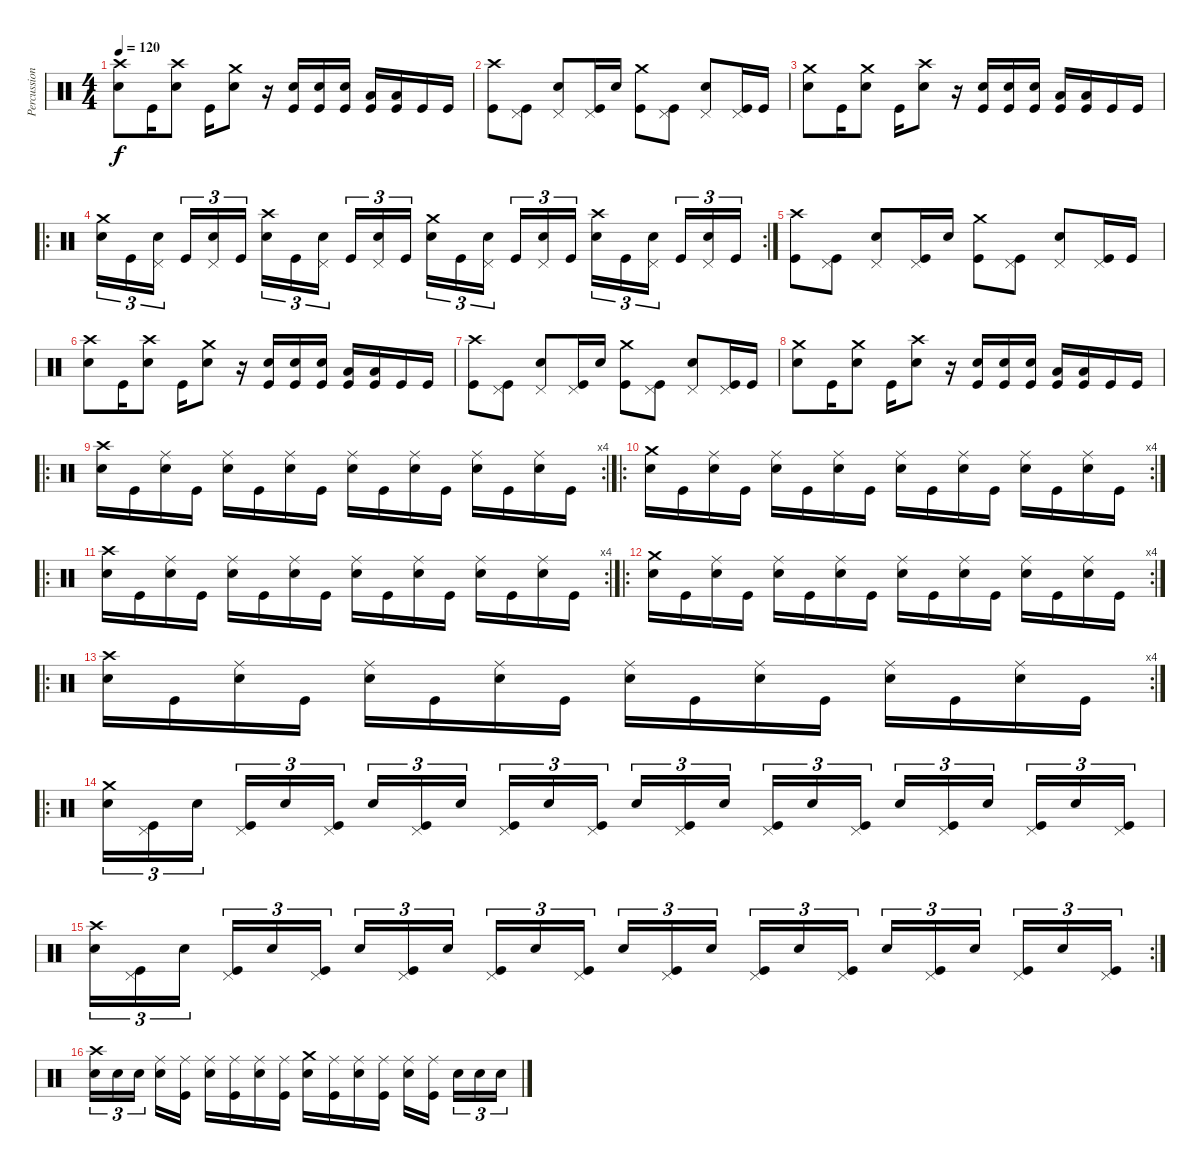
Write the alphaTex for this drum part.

\track ("Percussioni" "Percussion") {instrument percussion}
\staff {score}
\articulation defaults
\ts (4 4)
\tempo 120
\clef neutral
\ks c
("Crash high (hit)" "Electric Snare (hit)").8{dy f} "Kick (hit)".16 ("Crash high (hit)" "Electric Snare (hit)").8 "Kick (hit)".16 ("Crash medium (hit)" "Electric Snare (hit)").8 r.16 ("Electric Snare (hit)" "Kick (hit)").16 ("Electric Snare (hit)" "Kick (hit)").16 ("Electric Snare (hit)" "Kick (hit)").16 ("Low Floor Tom (hit)" "Kick (hit)").16 ("Low Floor Tom (hit)" "Kick (hit)").16 "Kick (hit)".16 "Kick (hit)".16 |
("Crash high (hit)" "Kick (hit)").8 ("Pedal Hi-Hat (hit)" "Kick (hit)").8 ("Pedal Hi-Hat (hit)" "Electric Snare (hit)").8 ("Pedal Hi-Hat (hit)" "Kick (hit)").16 "Electric Snare (hit)".16 ("Crash medium (hit)" "Kick (hit)").8 ("Pedal Hi-Hat (hit)" "Kick (hit)").8 ("Pedal Hi-Hat (hit)" "Electric Snare (hit)").8 ("Pedal Hi-Hat (hit)" "Kick (hit)").16 "Kick (hit)".16 |
("Crash medium (hit)" "Electric Snare (hit)").8 "Kick (hit)".16 ("Crash medium (hit)" "Electric Snare (hit)").8 "Kick (hit)".16 ("Crash high (hit)" "Electric Snare (hit)").8 r.16 ("Electric Snare (hit)" "Kick (hit)").16 ("Electric Snare (hit)" "Kick (hit)").16 ("Electric Snare (hit)" "Kick (hit)").16 ("Low Floor Tom (hit)" "Kick (hit)").16 ("Low Floor Tom (hit)" "Kick (hit)").16 "Kick (hit)".16 "Kick (hit)".16 |
\ro
\rc 2
("Crash medium (hit)" "Electric Snare (hit)").16{tu (3 2)} "Kick (hit)".16{tu (3 2)} ("Pedal Hi-Hat (hit)" "Electric Snare (hit)").16{tu (3 2)} "Kick (hit)".16{tu (3 2)} ("Pedal Hi-Hat (hit)" "Electric Snare (hit)").16{tu (3 2)} "Kick (hit)".16{tu (3 2)} ("Crash high (hit)" "Electric Snare (hit)").16{tu (3 2)} "Kick (hit)".16{tu (3 2)} ("Pedal Hi-Hat (hit)" "Electric Snare (hit)").16{tu (3 2)} "Kick (hit)".16{tu (3 2)} ("Pedal Hi-Hat (hit)" "Electric Snare (hit)").16{tu (3 2)} "Kick (hit)".16{tu (3 2)} ("Crash medium (hit)" "Electric Snare (hit)").16{tu (3 2)} "Kick (hit)".16{tu (3 2)} ("Pedal Hi-Hat (hit)" "Electric Snare (hit)").16{tu (3 2)} "Kick (hit)".16{tu (3 2)} ("Pedal Hi-Hat (hit)" "Electric Snare (hit)").16{tu (3 2)} "Kick (hit)".16{tu (3 2)} ("Crash high (hit)" "Electric Snare (hit)").16{tu (3 2)} "Kick (hit)".16{tu (3 2)} ("Pedal Hi-Hat (hit)" "Electric Snare (hit)").16{tu (3 2)} "Kick (hit)".16{tu (3 2)} ("Pedal Hi-Hat (hit)" "Electric Snare (hit)").16{tu (3 2)} "Kick (hit)".16{tu (3 2)} |
("Crash high (hit)" "Kick (hit)").8 ("Pedal Hi-Hat (hit)" "Kick (hit)").8 ("Pedal Hi-Hat (hit)" "Electric Snare (hit)").8 ("Pedal Hi-Hat (hit)" "Kick (hit)").16 "Electric Snare (hit)".16 ("Crash medium (hit)" "Kick (hit)").8 ("Pedal Hi-Hat (hit)" "Kick (hit)").8 ("Pedal Hi-Hat (hit)" "Electric Snare (hit)").8 ("Pedal Hi-Hat (hit)" "Kick (hit)").16 "Kick (hit)".16 |
("Crash high (hit)" "Electric Snare (hit)").8 "Kick (hit)".16 ("Crash high (hit)" "Electric Snare (hit)").8 "Kick (hit)".16 ("Crash medium (hit)" "Electric Snare (hit)").8 r.16 ("Electric Snare (hit)" "Kick (hit)").16 ("Electric Snare (hit)" "Kick (hit)").16 ("Electric Snare (hit)" "Kick (hit)").16 ("Low Floor Tom (hit)" "Kick (hit)").16 ("Low Floor Tom (hit)" "Kick (hit)").16 "Kick (hit)".16 "Kick (hit)".16 |
("Crash high (hit)" "Kick (hit)").8 ("Pedal Hi-Hat (hit)" "Kick (hit)").8 ("Pedal Hi-Hat (hit)" "Electric Snare (hit)").8 ("Pedal Hi-Hat (hit)" "Kick (hit)").16 "Electric Snare (hit)".16 ("Crash medium (hit)" "Kick (hit)").8 ("Pedal Hi-Hat (hit)" "Kick (hit)").8 ("Pedal Hi-Hat (hit)" "Electric Snare (hit)").8 ("Pedal Hi-Hat (hit)" "Kick (hit)").16 "Kick (hit)".16 |
("Crash medium (hit)" "Electric Snare (hit)").8 "Kick (hit)".16 ("Crash medium (hit)" "Electric Snare (hit)").8 "Kick (hit)".16 ("Crash high (hit)" "Electric Snare (hit)").8 r.16 ("Electric Snare (hit)" "Kick (hit)").16 ("Electric Snare (hit)" "Kick (hit)").16 ("Electric Snare (hit)" "Kick (hit)").16 ("Low Floor Tom (hit)" "Kick (hit)").16 ("Low Floor Tom (hit)" "Kick (hit)").16 "Kick (hit)".16 "Kick (hit)".16 |
\ro
\rc 4
("Crash high (hit)" "Electric Snare (hit)").16 "Kick (hit)".16 ("Ride (middle)" "Electric Snare (hit)").16 "Kick (hit)".16 ("Ride (middle)" "Electric Snare (hit)").16 "Kick (hit)".16 ("Ride (middle)" "Electric Snare (hit)").16 "Kick (hit)".16 ("Ride (middle)" "Electric Snare (hit)").16 "Kick (hit)".16 ("Ride (middle)" "Electric Snare (hit)").16 "Kick (hit)".16 ("Ride (middle)" "Electric Snare (hit)").16 "Kick (hit)".16 ("Ride (middle)" "Electric Snare (hit)").16 "Kick (hit)".16 |
\ro
\rc 4
("Crash medium (hit)" "Electric Snare (hit)").16 "Kick (hit)".16 ("Ride (middle)" "Electric Snare (hit)").16 "Kick (hit)".16 ("Ride (middle)" "Electric Snare (hit)").16 "Kick (hit)".16 ("Ride (middle)" "Electric Snare (hit)").16 "Kick (hit)".16 ("Ride (middle)" "Electric Snare (hit)").16 "Kick (hit)".16 ("Ride (middle)" "Electric Snare (hit)").16 "Kick (hit)".16 ("Ride (middle)" "Electric Snare (hit)").16 "Kick (hit)".16 ("Ride (middle)" "Electric Snare (hit)").16 "Kick (hit)".16 |
\ro
\rc 4
("Crash high (hit)" "Electric Snare (hit)").16 "Kick (hit)".16 ("Ride (middle)" "Electric Snare (hit)").16 "Kick (hit)".16 ("Ride (middle)" "Electric Snare (hit)").16 "Kick (hit)".16 ("Ride (middle)" "Electric Snare (hit)").16 "Kick (hit)".16 ("Ride (middle)" "Electric Snare (hit)").16 "Kick (hit)".16 ("Ride (middle)" "Electric Snare (hit)").16 "Kick (hit)".16 ("Ride (middle)" "Electric Snare (hit)").16 "Kick (hit)".16 ("Ride (middle)" "Electric Snare (hit)").16 "Kick (hit)".16 |
\ro
\rc 4
("Crash medium (hit)" "Electric Snare (hit)").16 "Kick (hit)".16 ("Ride (middle)" "Electric Snare (hit)").16 "Kick (hit)".16 ("Ride (middle)" "Electric Snare (hit)").16 "Kick (hit)".16 ("Ride (middle)" "Electric Snare (hit)").16 "Kick (hit)".16 ("Ride (middle)" "Electric Snare (hit)").16 "Kick (hit)".16 ("Ride (middle)" "Electric Snare (hit)").16 "Kick (hit)".16 ("Ride (middle)" "Electric Snare (hit)").16 "Kick (hit)".16 ("Ride (middle)" "Electric Snare (hit)").16 "Kick (hit)".16 |
\ro
\rc 4
("Crash high (hit)" "Electric Snare (hit)").16 "Kick (hit)".16 ("Ride (middle)" "Electric Snare (hit)").16 "Kick (hit)".16 ("Ride (middle)" "Electric Snare (hit)").16 "Kick (hit)".16 ("Ride (middle)" "Electric Snare (hit)").16 "Kick (hit)".16 ("Ride (middle)" "Electric Snare (hit)").16 "Kick (hit)".16 ("Ride (middle)" "Electric Snare (hit)").16 "Kick (hit)".16 ("Ride (middle)" "Electric Snare (hit)").16 "Kick (hit)".16 ("Ride (middle)" "Electric Snare (hit)").16 "Kick (hit)".16 |
\ro
("Crash medium (hit)" "Electric Snare (hit)").16{tu (3 2)} ("Pedal Hi-Hat (hit)" "Kick (hit)").16{tu (3 2)} "Electric Snare (hit)".16{tu (3 2)} ("Pedal Hi-Hat (hit)" "Kick (hit)").16{tu (3 2)} "Electric Snare (hit)".16{tu (3 2)} ("Pedal Hi-Hat (hit)" "Kick (hit)").16{tu (3 2)} "Electric Snare (hit)".16{tu (3 2)} ("Pedal Hi-Hat (hit)" "Kick (hit)").16{tu (3 2)} "Electric Snare (hit)".16{tu (3 2)} ("Pedal Hi-Hat (hit)" "Kick (hit)").16{tu (3 2)} "Electric Snare (hit)".16{tu (3 2)} ("Pedal Hi-Hat (hit)" "Kick (hit)").16{tu (3 2)} "Electric Snare (hit)".16{tu (3 2)} ("Pedal Hi-Hat (hit)" "Kick (hit)").16{tu (3 2)} "Electric Snare (hit)".16{tu (3 2)} ("Pedal Hi-Hat (hit)" "Kick (hit)").16{tu (3 2)} "Electric Snare (hit)".16{tu (3 2)} ("Pedal Hi-Hat (hit)" "Kick (hit)").16{tu (3 2)} "Electric Snare (hit)".16{tu (3 2)} ("Pedal Hi-Hat (hit)" "Kick (hit)").16{tu (3 2)} "Electric Snare (hit)".16{tu (3 2)} ("Pedal Hi-Hat (hit)" "Kick (hit)").16{tu (3 2)} "Electric Snare (hit)".16{tu (3 2)} ("Pedal Hi-Hat (hit)" "Kick (hit)").16{tu (3 2)} |
\rc 2
("Crash high (hit)" "Electric Snare (hit)").16{tu (3 2)} ("Pedal Hi-Hat (hit)" "Kick (hit)").16{tu (3 2)} "Electric Snare (hit)".16{tu (3 2)} ("Pedal Hi-Hat (hit)" "Kick (hit)").16{tu (3 2)} "Electric Snare (hit)".16{tu (3 2)} ("Pedal Hi-Hat (hit)" "Kick (hit)").16{tu (3 2)} "Electric Snare (hit)".16{tu (3 2)} ("Pedal Hi-Hat (hit)" "Kick (hit)").16{tu (3 2)} "Electric Snare (hit)".16{tu (3 2)} ("Pedal Hi-Hat (hit)" "Kick (hit)").16{tu (3 2)} "Electric Snare (hit)".16{tu (3 2)} ("Pedal Hi-Hat (hit)" "Kick (hit)").16{tu (3 2)} "Electric Snare (hit)".16{tu (3 2)} ("Pedal Hi-Hat (hit)" "Kick (hit)").16{tu (3 2)} "Electric Snare (hit)".16{tu (3 2)} ("Pedal Hi-Hat (hit)" "Kick (hit)").16{tu (3 2)} "Electric Snare (hit)".16{tu (3 2)} ("Pedal Hi-Hat (hit)" "Kick (hit)").16{tu (3 2)} "Electric Snare (hit)".16{tu (3 2)} ("Pedal Hi-Hat (hit)" "Kick (hit)").16{tu (3 2)} "Electric Snare (hit)".16{tu (3 2)} ("Pedal Hi-Hat (hit)" "Kick (hit)").16{tu (3 2)} "Electric Snare (hit)".16{tu (3 2)} ("Pedal Hi-Hat (hit)" "Kick (hit)").16{tu (3 2)} |
("Crash high (hit)" "Electric Snare (hit)").16{tu (3 2)} "Electric Snare (hit)".16{tu (3 2)} "Electric Snare (hit)".16{tu (3 2)} ("Ride (middle)" "Electric Snare (hit)").16 ("Ride (middle)" "Kick (hit)").16 ("Ride (middle)" "Electric Snare (hit)").16 ("Ride (middle)" "Kick (hit)").16 ("Ride (middle)" "Electric Snare (hit)").16 ("Ride (middle)" "Kick (hit)").16 ("Crash medium (hit)" "Electric Snare (hit)").16 ("Ride (middle)" "Kick (hit)").16 ("Ride (middle)" "Electric Snare (hit)").16 ("Ride (middle)" "Kick (hit)").16 ("Ride (middle)" "Electric Snare (hit)").16 ("Ride (middle)" "Kick (hit)").16 "Electric Snare (hit)".16{tu (3 2)} "Electric Snare (hit)".16{tu (3 2)} "Electric Snare (hit)".16{tu (3 2)}
